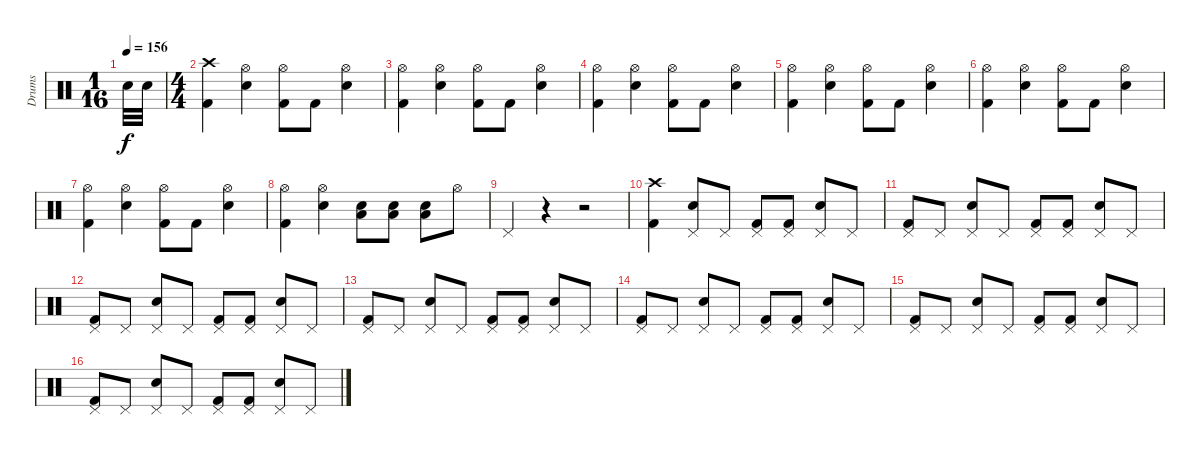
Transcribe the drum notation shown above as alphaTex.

\track ("Drums" "Drums") {instrument percussion}
\staff {score}
\articulation defaults
\ts (1 16)
\tempo 156
\clef neutral
\ks c "Electric Snare (hit)".32{dy f} "Electric Snare (hit)".32
|
\ts (4 4)
("Crash high (hit)" "Kick (hit) 2").4 ("Hi-Hat (open)" "Electric Snare (hit)").4 ("Hi-Hat (open)" "Kick (hit) 2").8 "Kick (hit) 2".8 ("Hi-Hat (open)" "Electric Snare (hit)").4 |
("Hi-Hat (open)" "Kick (hit) 2").4 ("Hi-Hat (open)" "Electric Snare (hit)").4 ("Hi-Hat (open)" "Kick (hit) 2").8 "Kick (hit) 2".8 ("Hi-Hat (open)" "Electric Snare (hit)").4 |
("Hi-Hat (open)" "Kick (hit) 2").4 ("Hi-Hat (open)" "Electric Snare (hit)").4 ("Hi-Hat (open)" "Kick (hit) 2").8 "Kick (hit) 2".8 ("Hi-Hat (open)" "Electric Snare (hit)").4 |
("Hi-Hat (open)" "Kick (hit) 2").4 ("Hi-Hat (open)" "Electric Snare (hit)").4 ("Hi-Hat (open)" "Kick (hit) 2").8 "Kick (hit) 2".8 ("Hi-Hat (open)" "Electric Snare (hit)").4 |
("Hi-Hat (open)" "Kick (hit) 2").4 ("Hi-Hat (open)" "Electric Snare (hit)").4 ("Hi-Hat (open)" "Kick (hit) 2").8 "Kick (hit) 2".8 ("Hi-Hat (open)" "Electric Snare (hit)").4 |
("Hi-Hat (open)" "Kick (hit) 2").4 ("Hi-Hat (open)" "Electric Snare (hit)").4 ("Hi-Hat (open)" "Kick (hit) 2").8 "Kick (hit) 2".8 ("Hi-Hat (open)" "Electric Snare (hit)").4 |
("Hi-Hat (open)" "Kick (hit) 2").4 ("Hi-Hat (open)" "Electric Snare (hit)").4 ("Low Tom (hit)" "Electric Snare (hit)").8 ("Low Tom (hit)" "Electric Snare (hit)").8 ("Low Tom (hit)" "Electric Snare (hit)").8 "Hi-Hat (open)".8 |
"Pedal Hi-Hat (hit)".4 r.4 r.2 |
("Crash high (hit)" "Kick (hit) 2").4 ("Pedal Hi-Hat (hit)" "Electric Snare (hit)").8 "Pedal Hi-Hat (hit)".8 ("Pedal Hi-Hat (hit)" "Kick (hit) 2").8 ("Pedal Hi-Hat (hit)" "Kick (hit) 2").8 ("Pedal Hi-Hat (hit)" "Electric Snare (hit)").8 "Pedal Hi-Hat (hit)".8 |
("Pedal Hi-Hat (hit)" "Kick (hit) 2").8 "Pedal Hi-Hat (hit)".8 ("Pedal Hi-Hat (hit)" "Electric Snare (hit)").8 "Pedal Hi-Hat (hit)".8 ("Pedal Hi-Hat (hit)" "Kick (hit) 2").8 ("Pedal Hi-Hat (hit)" "Kick (hit) 2").8 ("Pedal Hi-Hat (hit)" "Electric Snare (hit)").8 "Pedal Hi-Hat (hit)".8 |
("Pedal Hi-Hat (hit)" "Kick (hit) 2").8 "Pedal Hi-Hat (hit)".8 ("Pedal Hi-Hat (hit)" "Electric Snare (hit)").8 "Pedal Hi-Hat (hit)".8 ("Pedal Hi-Hat (hit)" "Kick (hit) 2").8 ("Pedal Hi-Hat (hit)" "Kick (hit) 2").8 ("Pedal Hi-Hat (hit)" "Electric Snare (hit)").8 "Pedal Hi-Hat (hit)".8 |
("Pedal Hi-Hat (hit)" "Kick (hit) 2").8 "Pedal Hi-Hat (hit)".8 ("Pedal Hi-Hat (hit)" "Electric Snare (hit)").8 "Pedal Hi-Hat (hit)".8 ("Pedal Hi-Hat (hit)" "Kick (hit) 2").8 ("Pedal Hi-Hat (hit)" "Kick (hit) 2").8 ("Pedal Hi-Hat (hit)" "Electric Snare (hit)").8 "Pedal Hi-Hat (hit)".8 |
("Pedal Hi-Hat (hit)" "Kick (hit) 2").8 "Pedal Hi-Hat (hit)".8 ("Pedal Hi-Hat (hit)" "Electric Snare (hit)").8 "Pedal Hi-Hat (hit)".8 ("Pedal Hi-Hat (hit)" "Kick (hit) 2").8 ("Pedal Hi-Hat (hit)" "Kick (hit) 2").8 ("Pedal Hi-Hat (hit)" "Electric Snare (hit)").8 "Pedal Hi-Hat (hit)".8 |
("Pedal Hi-Hat (hit)" "Kick (hit) 2").8 "Pedal Hi-Hat (hit)".8 ("Pedal Hi-Hat (hit)" "Electric Snare (hit)").8 "Pedal Hi-Hat (hit)".8 ("Pedal Hi-Hat (hit)" "Kick (hit) 2").8 ("Pedal Hi-Hat (hit)" "Kick (hit) 2").8 ("Pedal Hi-Hat (hit)" "Electric Snare (hit)").8 "Pedal Hi-Hat (hit)".8 |
("Pedal Hi-Hat (hit)" "Kick (hit) 2").8 "Pedal Hi-Hat (hit)".8 ("Pedal Hi-Hat (hit)" "Electric Snare (hit)").8 "Pedal Hi-Hat (hit)".8 ("Pedal Hi-Hat (hit)" "Kick (hit) 2").8 ("Pedal Hi-Hat (hit)" "Kick (hit) 2").8 ("Pedal Hi-Hat (hit)" "Electric Snare (hit)").8 "Pedal Hi-Hat (hit)".8
